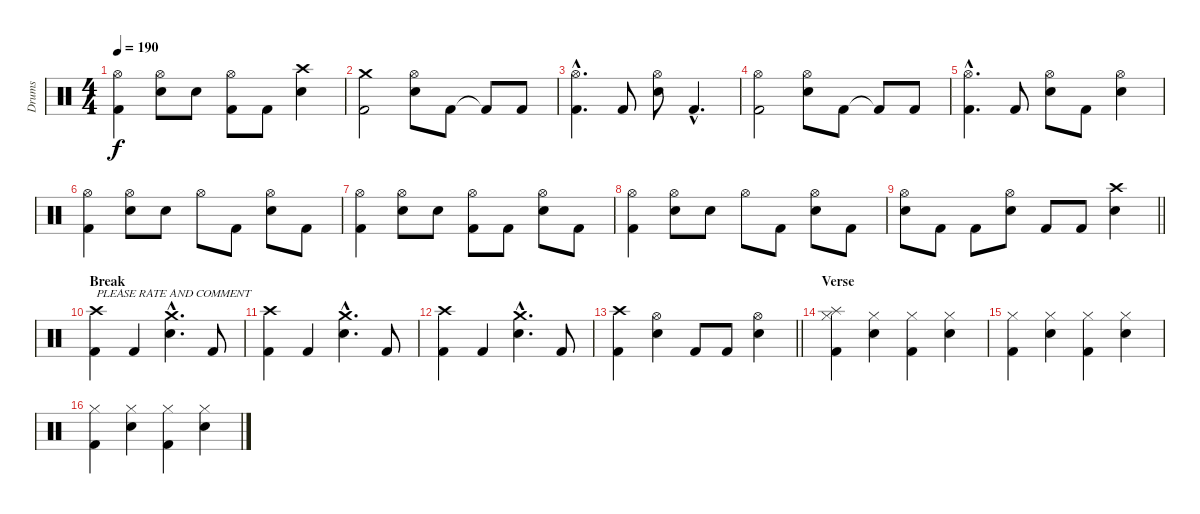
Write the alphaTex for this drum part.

\track ("Drums" "Drums") {instrument percussion}
\staff {score}
\articulation defaults
\ts (4 4)
\tempo 190
\clef neutral
\ks c
("Hi-Hat (open)" "Kick (hit) 2").4{dy f} ("Hi-Hat (open)" "Electric Snare (hit)").8 "Electric Snare (hit)".8 ("Hi-Hat (open)" "Kick (hit) 2").8 "Kick (hit) 2".8 ("Crash high (hit)" "Electric Snare (hit)").4 |
("Crash medium (hit)" "Kick (hit) 2").2 ("Hi-Hat (open)" "Electric Snare (hit)").8 "Kick (hit) 2".8 "Kick (hit) 2"{t}.8 "Kick (hit) 2".8 |
("Hi-Hat (open)"{hac} "Kick (hit) 2"{hac}).4{d} "Kick (hit) 2".8 ("Hi-Hat (open)" "Electric Snare (hit)").8 "Kick (hit) 2"{hac}.4{d} |
("Hi-Hat (open)" "Kick (hit) 2").2 ("Hi-Hat (open)" "Electric Snare (hit)").8 "Kick (hit) 2".8 "Kick (hit) 2"{t}.8 "Kick (hit) 2".8 |
("Hi-Hat (open)"{hac} "Kick (hit) 2"{hac}).4{d} "Kick (hit) 2".8 ("Hi-Hat (open)" "Electric Snare (hit)").8 "Kick (hit) 2".8 ("Hi-Hat (open)" "Electric Snare (hit)").4 |
("Hi-Hat (open)" "Kick (hit) 2").4 ("Hi-Hat (open)" "Electric Snare (hit)").8 "Electric Snare (hit)".8 "Hi-Hat (open)".8 "Kick (hit) 2".8 ("Hi-Hat (open)" "Electric Snare (hit)").8 "Kick (hit) 2".8 |
("Hi-Hat (open)" "Kick (hit) 2").4 ("Hi-Hat (open)" "Electric Snare (hit)").8 "Electric Snare (hit)".8 ("Hi-Hat (open)" "Kick (hit) 2").8 "Kick (hit) 2".8 ("Hi-Hat (open)" "Electric Snare (hit)").8 "Kick (hit) 2".8 |
("Hi-Hat (open)" "Kick (hit) 2").4 ("Hi-Hat (open)" "Electric Snare (hit)").8 "Electric Snare (hit)".8 "Hi-Hat (open)".8 "Kick (hit) 2".8 ("Hi-Hat (open)" "Electric Snare (hit)").8 "Kick (hit) 2".8 |
\barLineRight lightlight
("Hi-Hat (open)" "Electric Snare (hit)").8 "Kick (hit) 2".8 "Kick (hit) 2".8 ("Hi-Hat (open)" "Electric Snare (hit)").8 "Kick (hit) 2".8 "Kick (hit) 2".8 ("Crash high (hit)" "Electric Snare (hit)").4 |
\section ("" "Break")
("Crash high (hit)" "Kick (hit) 2").4{txt "PLEASE RATE AND COMMENT"} "Kick (hit) 2".4 ("Crash medium (hit)"{hac} "Electric Snare (hit)"{hac}).4{d} "Kick (hit) 2".8 |
("Crash high (hit)" "Kick (hit) 2").4 "Kick (hit) 2".4 ("Crash medium (hit)"{hac} "Electric Snare (hit)"{hac}).4{d} "Kick (hit) 2".8 |
("Crash high (hit)" "Kick (hit) 2").4 "Kick (hit) 2".4 ("Crash medium (hit)"{hac} "Electric Snare (hit)"{hac}).4{d} "Kick (hit) 2".8 |
\barLineRight lightlight
("Crash high (hit)" "Kick (hit) 2").4 ("Hi-Hat (open)" "Electric Snare (hit)").4 "Kick (hit) 2".8 "Kick (hit) 2".8 ("Hi-Hat (open)" "Electric Snare (hit)").4 |
\section ("" "Verse")
("Splash (hit)" "Hi-Hat (closed)" "Kick (hit) 2").4 ("Hi-Hat (closed)" "Electric Snare (hit)").4 ("Hi-Hat (closed)" "Kick (hit) 2").4 ("Hi-Hat (closed)" "Electric Snare (hit)").4 |
("Hi-Hat (closed)" "Kick (hit) 2").4 ("Hi-Hat (closed)" "Electric Snare (hit)").4 ("Hi-Hat (closed)" "Kick (hit) 2").4 ("Hi-Hat (closed)" "Electric Snare (hit)").4 |
("Hi-Hat (closed)" "Kick (hit) 2").4 ("Hi-Hat (closed)" "Electric Snare (hit)").4 ("Hi-Hat (closed)" "Kick (hit) 2").4 ("Hi-Hat (closed)" "Electric Snare (hit)").4
